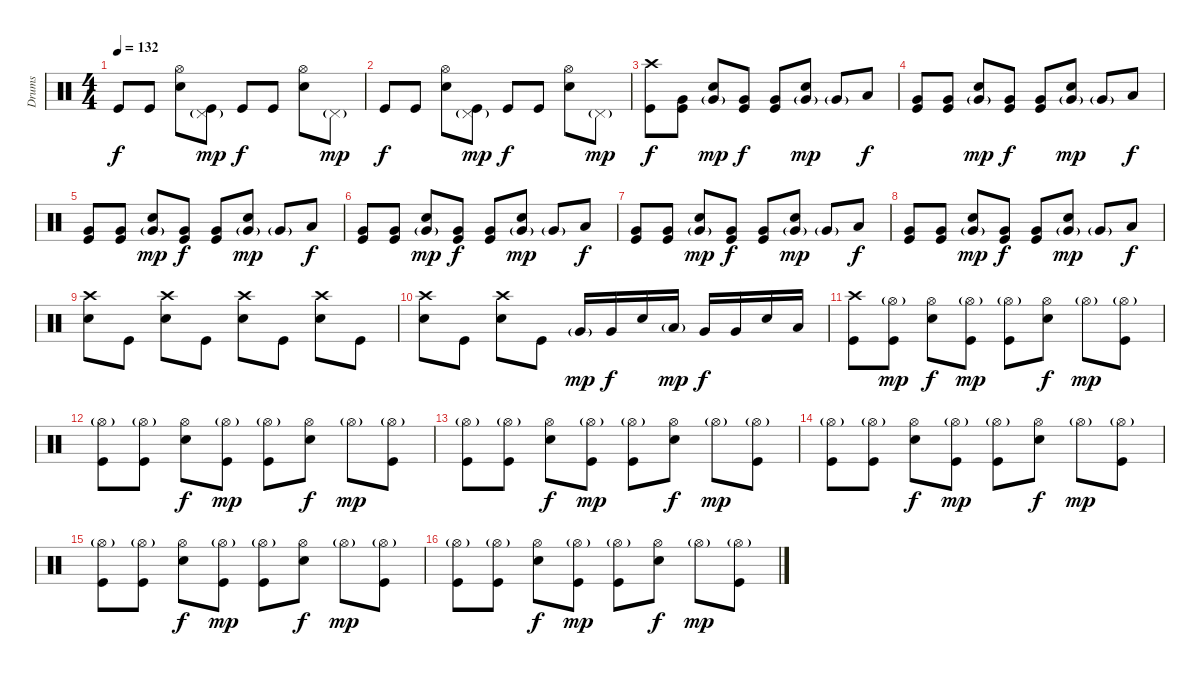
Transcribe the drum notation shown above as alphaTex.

\track ("Drums" "Drums") {instrument percussion}
\staff {score}
\articulation defaults
\ts (4 4)
\tempo 132
\clef neutral
\ks c "Kick (hit)".8{dy f} "Kick (hit)".8
("Hi-Hat (open)" "Snare (hit) 2").8 ("Pedal Hi-Hat (hit)"{g} "Kick (hit)").8{dy mp} "Kick (hit)".8{dy f} "Kick (hit)".8 ("Hi-Hat (open)" "Snare (hit) 2").8 "Pedal Hi-Hat (hit)"{g}.8{dy mp} |
"Kick (hit)".8{dy f} "Kick (hit)".8 ("Hi-Hat (open)" "Snare (hit) 2").8 ("Pedal Hi-Hat (hit)"{g} "Kick (hit)").8{dy mp} "Kick (hit)".8{dy f} "Kick (hit)".8 ("Hi-Hat (open)" "Snare (hit) 2").8 "Pedal Hi-Hat (hit)"{g}.8{dy mp} |
("Crash high (hit)" "Kick (hit)").8{dy f} ("Very Low Tom (hit)" "Kick (hit)").8 ("Very Low Tom (hit)"{g} "Snare (hit) 2").8{dy mp} ("Very Low Tom (hit)" "Kick (hit)").8{dy f} ("Very Low Tom (hit)" "Kick (hit)").8 ("Very Low Tom (hit)"{g} "Snare (hit) 2").8{dy mp} "Very Low Tom (hit)"{g}.8 "Low Tom (hit)".8{dy f} |
("Very Low Tom (hit)" "Kick (hit)").8 ("Very Low Tom (hit)" "Kick (hit)").8 ("Very Low Tom (hit)"{g} "Snare (hit) 2").8{dy mp} ("Very Low Tom (hit)" "Kick (hit)").8{dy f} ("Very Low Tom (hit)" "Kick (hit)").8 ("Very Low Tom (hit)"{g} "Snare (hit) 2").8{dy mp} "Very Low Tom (hit)"{g}.8 "Low Tom (hit)".8{dy f} |
("Very Low Tom (hit)" "Kick (hit)").8 ("Very Low Tom (hit)" "Kick (hit)").8 ("Very Low Tom (hit)"{g} "Snare (hit) 2").8{dy mp} ("Very Low Tom (hit)" "Kick (hit)").8{dy f} ("Very Low Tom (hit)" "Kick (hit)").8 ("Very Low Tom (hit)"{g} "Snare (hit) 2").8{dy mp} "Very Low Tom (hit)"{g}.8 "Low Tom (hit)".8{dy f} |
("Very Low Tom (hit)" "Kick (hit)").8 ("Very Low Tom (hit)" "Kick (hit)").8 ("Very Low Tom (hit)"{g} "Snare (hit) 2").8{dy mp} ("Very Low Tom (hit)" "Kick (hit)").8{dy f} ("Very Low Tom (hit)" "Kick (hit)").8 ("Very Low Tom (hit)"{g} "Snare (hit) 2").8{dy mp} "Very Low Tom (hit)"{g}.8 "Low Tom (hit)".8{dy f} |
("Very Low Tom (hit)" "Kick (hit)").8 ("Very Low Tom (hit)" "Kick (hit)").8 ("Very Low Tom (hit)"{g} "Snare (hit) 2").8{dy mp} ("Very Low Tom (hit)" "Kick (hit)").8{dy f} ("Very Low Tom (hit)" "Kick (hit)").8 ("Very Low Tom (hit)"{g} "Snare (hit) 2").8{dy mp} "Very Low Tom (hit)"{g}.8 "Low Tom (hit)".8{dy f} |
("Very Low Tom (hit)" "Kick (hit)").8 ("Very Low Tom (hit)" "Kick (hit)").8 ("Very Low Tom (hit)"{g} "Snare (hit) 2").8{dy mp} ("Very Low Tom (hit)" "Kick (hit)").8{dy f} ("Very Low Tom (hit)" "Kick (hit)").8 ("Very Low Tom (hit)"{g} "Snare (hit) 2").8{dy mp} "Very Low Tom (hit)"{g}.8 "Low Tom (hit)".8{dy f} |
("Crash high (hit)" "Snare (hit) 2").8 "Kick (hit)".8 ("Crash high (hit)" "Snare (hit) 2").8 "Kick (hit)".8 ("Crash high (hit)" "Snare (hit) 2").8 "Kick (hit)".8 ("Crash high (hit)" "Snare (hit) 2").8 "Kick (hit)".8 |
("Crash high (hit)" "Snare (hit) 2").8 "Kick (hit)".8 ("Crash high (hit)" "Snare (hit) 2").8 "Kick (hit)".8 "Very Low Tom (hit)"{g}.16{dy mp} "Very Low Tom (hit)".16{dy f} "Snare (hit) 2".16 "Low Tom (hit)"{g}.16{dy mp} "Very Low Tom (hit)".16{dy f} "Very Low Tom (hit)".16 "Snare (hit) 2".16 "Low Tom (hit)".16 |
("Crash high (hit)" "Kick (hit)").8 ("Hi-Hat (open)"{g} "Kick (hit)").8{dy mp} ("Hi-Hat (open)" "Snare (hit) 2").8{dy f} ("Hi-Hat (open)"{g} "Kick (hit)").8{dy mp} ("Hi-Hat (open)"{g} "Kick (hit)").8 ("Hi-Hat (open)" "Snare (hit) 2").8{dy f} "Hi-Hat (open)"{g}.8{dy mp} ("Hi-Hat (open)"{g} "Kick (hit)").8 |
("Hi-Hat (open)"{g} "Kick (hit)").8 ("Hi-Hat (open)"{g} "Kick (hit)").8 ("Hi-Hat (open)" "Snare (hit) 2").8{dy f} ("Hi-Hat (open)"{g} "Kick (hit)").8{dy mp} ("Hi-Hat (open)"{g} "Kick (hit)").8 ("Hi-Hat (open)" "Snare (hit) 2").8{dy f} "Hi-Hat (open)"{g}.8{dy mp} ("Hi-Hat (open)"{g} "Kick (hit)").8 |
("Hi-Hat (open)"{g} "Kick (hit)").8 ("Hi-Hat (open)"{g} "Kick (hit)").8 ("Hi-Hat (open)" "Snare (hit) 2").8{dy f} ("Hi-Hat (open)"{g} "Kick (hit)").8{dy mp} ("Hi-Hat (open)"{g} "Kick (hit)").8 ("Hi-Hat (open)" "Snare (hit) 2").8{dy f} "Hi-Hat (open)"{g}.8{dy mp} ("Hi-Hat (open)"{g} "Kick (hit)").8 |
("Hi-Hat (open)"{g} "Kick (hit)").8 ("Hi-Hat (open)"{g} "Kick (hit)").8 ("Hi-Hat (open)" "Snare (hit) 2").8{dy f} ("Hi-Hat (open)"{g} "Kick (hit)").8{dy mp} ("Hi-Hat (open)"{g} "Kick (hit)").8 ("Hi-Hat (open)" "Snare (hit) 2").8{dy f} "Hi-Hat (open)"{g}.8{dy mp} ("Hi-Hat (open)"{g} "Kick (hit)").8 |
("Hi-Hat (open)"{g} "Kick (hit)").8 ("Hi-Hat (open)"{g} "Kick (hit)").8 ("Hi-Hat (open)" "Snare (hit) 2").8{dy f} ("Hi-Hat (open)"{g} "Kick (hit)").8{dy mp} ("Hi-Hat (open)"{g} "Kick (hit)").8 ("Hi-Hat (open)" "Snare (hit) 2").8{dy f} "Hi-Hat (open)"{g}.8{dy mp} ("Hi-Hat (open)"{g} "Kick (hit)").8 |
("Hi-Hat (open)"{g} "Kick (hit)").8 ("Hi-Hat (open)"{g} "Kick (hit)").8 ("Hi-Hat (open)" "Snare (hit) 2").8{dy f} ("Hi-Hat (open)"{g} "Kick (hit)").8{dy mp} ("Hi-Hat (open)"{g} "Kick (hit)").8 ("Hi-Hat (open)" "Snare (hit) 2").8{dy f} "Hi-Hat (open)"{g}.8{dy mp} ("Hi-Hat (open)"{g} "Kick (hit)").8
